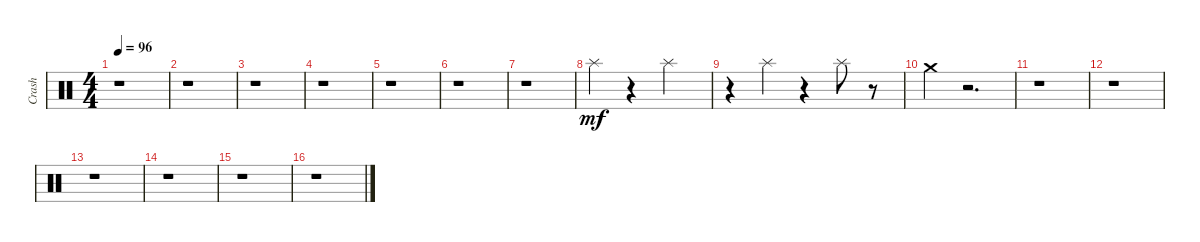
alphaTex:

\track ("Crash" "Crash") {instrument percussion}
\staff {score}
\articulation defaults
\ts (4 4)
\tempo 96
\clef neutral
\ks c
r.1{dy mf} |
r.1 |
r.1 |
r.1 |
r.1 |
r.1 |
r.1 |
"Splash (hit)".4 r.4 "Splash (hit)".2 |
r.4 "Splash (hit)".4 r.4 "Splash (hit)".8 r.8 |
"Crash medium (hit)".4 r.2{d} |
r.1 |
r.1 |
r.1 |
r.1 |
r.1 |
r.1
